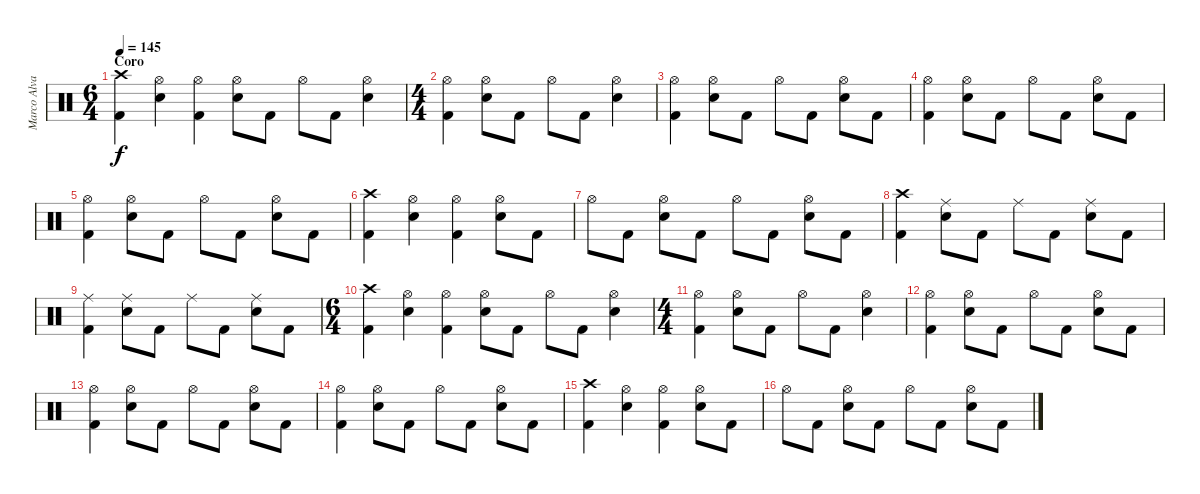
\track ("Marco Alvarez" "Marco Alva") {instrument percussion}
\staff {score}
\articulation defaults
\ts (6 4)
\section ("" "Coro")
\tempo 145
\clef neutral
\ks c
("Kick (hit) 2" "Crash high (hit)").4{dy f} ("Electric Snare (hit)" "Hi-Hat (open)").4 ("Kick (hit) 2" "Hi-Hat (open)").4 ("Electric Snare (hit)" "Hi-Hat (open)").8 "Kick (hit) 2".8 "Hi-Hat (open)".8 "Kick (hit) 2".8 ("Electric Snare (hit)" "Hi-Hat (open)").4 |
\ts (4 4)
("Kick (hit) 2" "Hi-Hat (open)").4 ("Electric Snare (hit)" "Hi-Hat (open)").8 "Kick (hit) 2".8 "Hi-Hat (open)".8 "Kick (hit) 2".8 ("Electric Snare (hit)" "Hi-Hat (open)").4 |
("Kick (hit) 2" "Hi-Hat (open)").4 ("Electric Snare (hit)" "Hi-Hat (open)").8 "Kick (hit) 2".8 "Hi-Hat (open)".8 "Kick (hit) 2".8 ("Electric Snare (hit)" "Hi-Hat (open)").8 "Kick (hit) 2".8 |
("Kick (hit) 2" "Hi-Hat (open)").4 ("Electric Snare (hit)" "Hi-Hat (open)").8 "Kick (hit) 2".8 "Hi-Hat (open)".8 "Kick (hit) 2".8 ("Electric Snare (hit)" "Hi-Hat (open)").8 "Kick (hit) 2".8 |
("Kick (hit) 2" "Hi-Hat (open)").4 ("Electric Snare (hit)" "Hi-Hat (open)").8 "Kick (hit) 2".8 "Hi-Hat (open)".8 "Kick (hit) 2".8 ("Electric Snare (hit)" "Hi-Hat (open)").8 "Kick (hit) 2".8 |
("Kick (hit) 2" "Crash high (hit)").4 ("Electric Snare (hit)" "Hi-Hat (open)").4 ("Kick (hit) 2" "Hi-Hat (open)").4 ("Electric Snare (hit)" "Hi-Hat (open)").8 "Kick (hit) 2".8 |
"Hi-Hat (open)".8 "Kick (hit) 2".8 ("Electric Snare (hit)" "Hi-Hat (open)").8 "Kick (hit) 2".8 "Hi-Hat (open)".8 "Kick (hit) 2".8 ("Electric Snare (hit)" "Hi-Hat (open)").8 "Kick (hit) 2".8 |
("Kick (hit) 2" "Crash high (hit)").4 ("Electric Snare (hit)" "Ride (middle)").8 "Kick (hit) 2".8 "Ride (middle)".8 "Kick (hit) 2".8 ("Electric Snare (hit)" "Ride (middle)").8 "Kick (hit) 2".8 |
("Kick (hit) 2" "Ride (middle)").4 ("Electric Snare (hit)" "Ride (middle)").8 "Kick (hit) 2".8 "Ride (middle)".8 "Kick (hit) 2".8 ("Electric Snare (hit)" "Ride (middle)").8 "Kick (hit) 2".8 |
\ts (6 4)
("Kick (hit) 2" "Crash high (hit)").4 ("Electric Snare (hit)" "Hi-Hat (open)").4 ("Kick (hit) 2" "Hi-Hat (open)").4 ("Electric Snare (hit)" "Hi-Hat (open)").8 "Kick (hit) 2".8 "Hi-Hat (open)".8 "Kick (hit) 2".8 ("Electric Snare (hit)" "Hi-Hat (open)").4 |
\ts (4 4)
("Kick (hit) 2" "Hi-Hat (open)").4 ("Electric Snare (hit)" "Hi-Hat (open)").8 "Kick (hit) 2".8 "Hi-Hat (open)".8 "Kick (hit) 2".8 ("Electric Snare (hit)" "Hi-Hat (open)").4 |
("Kick (hit) 2" "Hi-Hat (open)").4 ("Electric Snare (hit)" "Hi-Hat (open)").8 "Kick (hit) 2".8 "Hi-Hat (open)".8 "Kick (hit) 2".8 ("Electric Snare (hit)" "Hi-Hat (open)").8 "Kick (hit) 2".8 |
("Kick (hit) 2" "Hi-Hat (open)").4 ("Electric Snare (hit)" "Hi-Hat (open)").8 "Kick (hit) 2".8 "Hi-Hat (open)".8 "Kick (hit) 2".8 ("Electric Snare (hit)" "Hi-Hat (open)").8 "Kick (hit) 2".8 |
("Kick (hit) 2" "Hi-Hat (open)").4 ("Electric Snare (hit)" "Hi-Hat (open)").8 "Kick (hit) 2".8 "Hi-Hat (open)".8 "Kick (hit) 2".8 ("Electric Snare (hit)" "Hi-Hat (open)").8 "Kick (hit) 2".8 |
("Kick (hit) 2" "Crash high (hit)").4 ("Electric Snare (hit)" "Hi-Hat (open)").4 ("Kick (hit) 2" "Hi-Hat (open)").4 ("Electric Snare (hit)" "Hi-Hat (open)").8 "Kick (hit) 2".8 |
"Hi-Hat (open)".8 "Kick (hit) 2".8 ("Electric Snare (hit)" "Hi-Hat (open)").8 "Kick (hit) 2".8 "Hi-Hat (open)".8 "Kick (hit) 2".8 ("Electric Snare (hit)" "Hi-Hat (open)").8 "Kick (hit) 2".8
